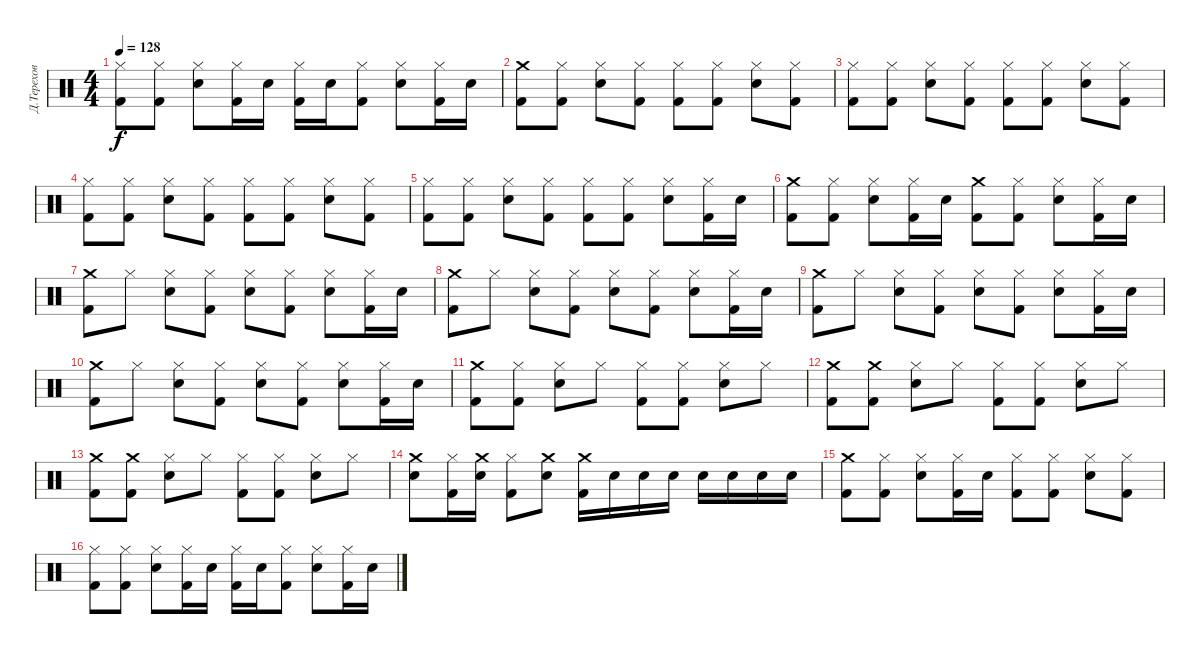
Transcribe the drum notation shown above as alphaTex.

\track ("Д.Терехов" "Д.Терехов") {instrument percussion}
\staff {score}
\articulation defaults
\ts (4 4)
\tempo 128
\clef neutral
\ks c
("Hi-Hat (closed)" "Kick (hit) 2").8{dy f} ("Hi-Hat (closed)" "Kick (hit) 2").8 ("Hi-Hat (closed)" "Electric Snare (hit)").8 ("Hi-Hat (closed)" "Kick (hit) 2").16 "Electric Snare (hit)".16 ("Hi-Hat (closed)" "Kick (hit) 2").16 "Electric Snare (hit)".16 ("Hi-Hat (closed)" "Kick (hit) 2").8 ("Hi-Hat (closed)" "Electric Snare (hit)").8 ("Hi-Hat (closed)" "Kick (hit) 2").16 "Electric Snare (hit)".16 |
("Crash medium (hit)" "Kick (hit) 2").8 ("Hi-Hat (closed)" "Kick (hit) 2").8 ("Hi-Hat (closed)" "Electric Snare (hit)").8 ("Hi-Hat (closed)" "Kick (hit) 2").8 ("Hi-Hat (closed)" "Kick (hit) 2").8 ("Hi-Hat (closed)" "Kick (hit) 2").8 ("Hi-Hat (closed)" "Electric Snare (hit)").8 ("Hi-Hat (closed)" "Kick (hit) 2").8 |
("Hi-Hat (closed)" "Kick (hit) 2").8 ("Hi-Hat (closed)" "Kick (hit) 2").8 ("Hi-Hat (closed)" "Electric Snare (hit)").8 ("Hi-Hat (closed)" "Kick (hit) 2").8 ("Hi-Hat (closed)" "Kick (hit) 2").8 ("Hi-Hat (closed)" "Kick (hit) 2").8 ("Hi-Hat (closed)" "Electric Snare (hit)").8 ("Hi-Hat (closed)" "Kick (hit) 2").8 |
("Hi-Hat (closed)" "Kick (hit) 2").8 ("Hi-Hat (closed)" "Kick (hit) 2").8 ("Hi-Hat (closed)" "Electric Snare (hit)").8 ("Hi-Hat (closed)" "Kick (hit) 2").8 ("Hi-Hat (closed)" "Kick (hit) 2").8 ("Hi-Hat (closed)" "Kick (hit) 2").8 ("Hi-Hat (closed)" "Electric Snare (hit)").8 ("Hi-Hat (closed)" "Kick (hit) 2").8 |
("Hi-Hat (closed)" "Kick (hit) 2").8 ("Hi-Hat (closed)" "Kick (hit) 2").8 ("Hi-Hat (closed)" "Electric Snare (hit)").8 ("Hi-Hat (closed)" "Kick (hit) 2").8 ("Hi-Hat (closed)" "Kick (hit) 2").8 ("Hi-Hat (closed)" "Kick (hit) 2").8 ("Hi-Hat (closed)" "Electric Snare (hit)").8 ("Hi-Hat (closed)" "Kick (hit) 2").16 "Electric Snare (hit)".16 |
("Crash medium (hit)" "Kick (hit) 2").8 ("Hi-Hat (closed)" "Kick (hit) 2").8 ("Hi-Hat (closed)" "Electric Snare (hit)").8 ("Hi-Hat (closed)" "Kick (hit) 2").16 "Electric Snare (hit)".16 ("Crash medium (hit)" "Kick (hit) 2").8 ("Hi-Hat (closed)" "Kick (hit) 2").8 ("Hi-Hat (closed)" "Electric Snare (hit)").8 ("Hi-Hat (closed)" "Kick (hit) 2").16 "Electric Snare (hit)".16 |
("Crash medium (hit)" "Kick (hit) 2").8 "Hi-Hat (closed)".8 ("Hi-Hat (closed)" "Electric Snare (hit)").8 ("Hi-Hat (closed)" "Kick (hit) 2").8 ("Hi-Hat (closed)" "Electric Snare (hit)").8 ("Hi-Hat (closed)" "Kick (hit) 2").8 ("Hi-Hat (closed)" "Electric Snare (hit)").8 ("Hi-Hat (closed)" "Kick (hit) 2").16 "Electric Snare (hit)".16 |
("Crash medium (hit)" "Kick (hit) 2").8 "Hi-Hat (closed)".8 ("Hi-Hat (closed)" "Electric Snare (hit)").8 ("Hi-Hat (closed)" "Kick (hit) 2").8 ("Hi-Hat (closed)" "Electric Snare (hit)").8 ("Hi-Hat (closed)" "Kick (hit) 2").8 ("Hi-Hat (closed)" "Electric Snare (hit)").8 ("Hi-Hat (closed)" "Kick (hit) 2").16 "Electric Snare (hit)".16 |
("Crash medium (hit)" "Kick (hit) 2").8 "Hi-Hat (closed)".8 ("Hi-Hat (closed)" "Electric Snare (hit)").8 ("Hi-Hat (closed)" "Kick (hit) 2").8 ("Hi-Hat (closed)" "Electric Snare (hit)").8 ("Hi-Hat (closed)" "Kick (hit) 2").8 ("Hi-Hat (closed)" "Electric Snare (hit)").8 ("Hi-Hat (closed)" "Kick (hit) 2").16 "Electric Snare (hit)".16 |
("Crash medium (hit)" "Kick (hit) 2").8 "Hi-Hat (closed)".8 ("Hi-Hat (closed)" "Electric Snare (hit)").8 ("Hi-Hat (closed)" "Kick (hit) 2").8 ("Hi-Hat (closed)" "Electric Snare (hit)").8 ("Hi-Hat (closed)" "Kick (hit) 2").8 ("Hi-Hat (closed)" "Electric Snare (hit)").8 ("Hi-Hat (closed)" "Kick (hit) 2").16 "Electric Snare (hit)".16 |
("Crash medium (hit)" "Kick (hit) 2").8 ("Hi-Hat (closed)" "Kick (hit) 2").8 ("Hi-Hat (closed)" "Electric Snare (hit)").8 "Hi-Hat (closed)".8 ("Hi-Hat (closed)" "Kick (hit) 2").8 ("Hi-Hat (closed)" "Kick (hit) 2").8 ("Hi-Hat (closed)" "Electric Snare (hit)").8 "Hi-Hat (closed)".8 |
("Crash medium (hit)" "Kick (hit) 2").8 ("Crash medium (hit)" "Kick (hit) 2").8 ("Hi-Hat (closed)" "Electric Snare (hit)").8 "Hi-Hat (closed)".8 ("Hi-Hat (closed)" "Kick (hit) 2").8 ("Hi-Hat (closed)" "Kick (hit) 2").8 ("Hi-Hat (closed)" "Electric Snare (hit)").8 "Hi-Hat (closed)".8 |
("Crash medium (hit)" "Kick (hit) 2").8 ("Crash medium (hit)" "Kick (hit) 2").8 ("Hi-Hat (closed)" "Electric Snare (hit)").8 "Hi-Hat (closed)".8 ("Hi-Hat (closed)" "Kick (hit) 2").8 ("Hi-Hat (closed)" "Kick (hit) 2").8 ("Hi-Hat (closed)" "Electric Snare (hit)").8 "Hi-Hat (closed)".8 |
("Crash medium (hit)" "Electric Snare (hit)").8 ("Hi-Hat (closed)" "Kick (hit) 2").16 ("Crash medium (hit)" "Electric Snare (hit)").16 ("Hi-Hat (closed)" "Kick (hit) 2").8 ("Crash medium (hit)" "Electric Snare (hit)").8 ("Crash medium (hit)" "Kick (hit) 2").16 "Electric Snare (hit)".16 "Electric Snare (hit)".16 "Electric Snare (hit)".16 "Electric Snare (hit)".16 "Electric Snare (hit)".16 "Electric Snare (hit)".16 "Electric Snare (hit)".16 |
("Crash medium (hit)" "Kick (hit) 2").8 ("Hi-Hat (closed)" "Kick (hit) 2").8 ("Hi-Hat (closed)" "Electric Snare (hit)").8 ("Hi-Hat (closed)" "Kick (hit) 2").16 "Electric Snare (hit)".16 ("Hi-Hat (closed)" "Kick (hit) 2").8 ("Hi-Hat (closed)" "Kick (hit) 2").8 ("Hi-Hat (closed)" "Electric Snare (hit)").8 ("Hi-Hat (closed)" "Kick (hit) 2").8 |
("Hi-Hat (closed)" "Kick (hit) 2").8 ("Hi-Hat (closed)" "Kick (hit) 2").8 ("Hi-Hat (closed)" "Electric Snare (hit)").8 ("Hi-Hat (closed)" "Kick (hit) 2").16 "Electric Snare (hit)".16 ("Hi-Hat (closed)" "Kick (hit) 2").16 "Electric Snare (hit)".16 ("Hi-Hat (closed)" "Kick (hit) 2").8 ("Hi-Hat (closed)" "Electric Snare (hit)").8 ("Hi-Hat (closed)" "Kick (hit) 2").16 "Electric Snare (hit)".16
